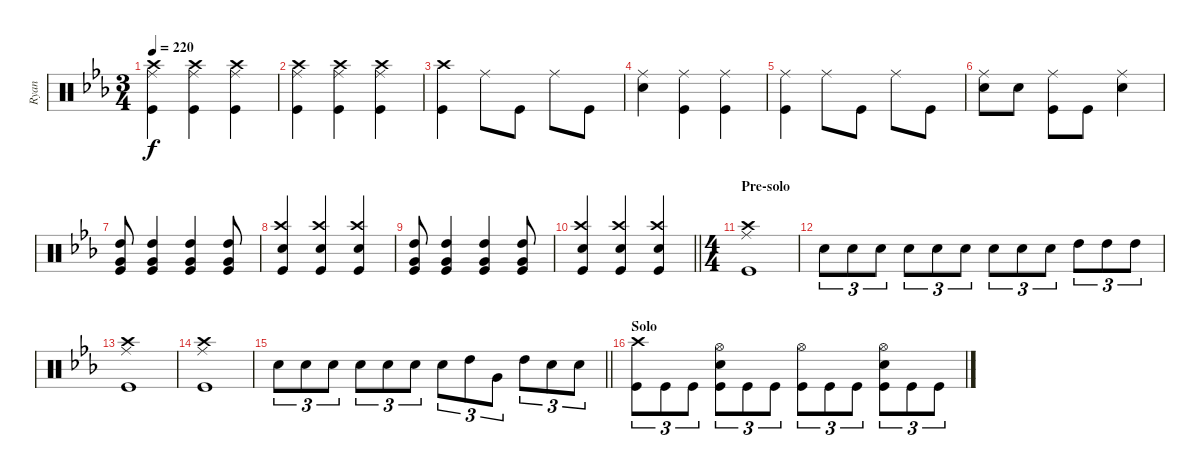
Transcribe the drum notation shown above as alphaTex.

\track ("Ryan" "Ryan") {instrument percussion}
\staff {score}
\articulation defaults
\ts (3 4)
\tempo 220
\clef neutral
\ks cminor
("Kick (hit)" "Crash high (hit)" "Ride (middle)").4{dy f} ("Crash high (hit)" "Kick (hit)" "Ride (middle)").4 ("Crash high (hit)" "Kick (hit)" "Ride (middle)").4 |
("Kick (hit)" "Crash high (hit)" "Ride (middle)").4 ("Crash high (hit)" "Kick (hit)" "Ride (middle)").4 ("Crash high (hit)" "Kick (hit)" "Ride (middle)").4 |
("Crash high (hit)" "Kick (hit)").4 "Ride (middle)".8 "Kick (hit)".8 "Ride (middle)".8 "Kick (hit)".8 |
("Ride (middle)" "Snare (hit) 2").4 ("Kick (hit)" "Ride (middle)").4 ("Kick (hit)" "Ride (middle)").4 |
("Kick (hit)" "Ride (middle)").4 "Ride (middle)".8 "Kick (hit)".8 "Ride (middle)".8 "Kick (hit)".8 |
("Snare (hit) 2" "Ride (middle)").8 "Snare (hit) 2".8 ("Kick (hit)" "Ride (middle)").8 "Kick (hit)".8 ("Snare (hit) 2" "Ride (middle)").4 |
("Kick (hit)" "Very Low Tom (hit)" "High Tom (hit)").8 ("High Tom (hit)" "Very Low Tom (hit)" "Kick (hit)").4 ("Very Low Tom (hit)" "Kick (hit)" "High Tom (hit)").4 ("Kick (hit)" "Very Low Tom (hit)" "High Tom (hit)").8 |
("Kick (hit)" "Snare (hit) 2" "Crash high (hit)").4 ("Kick (hit)" "Snare (hit) 2" "Crash high (hit)").4 ("Crash high (hit)" "Snare (hit) 2" "Kick (hit)").4 |
("Kick (hit)" "Very Low Tom (hit)" "High Tom (hit)").8 ("High Tom (hit)" "Very Low Tom (hit)" "Kick (hit)").4 ("Very Low Tom (hit)" "Kick (hit)" "High Tom (hit)").4 ("Kick (hit)" "Very Low Tom (hit)" "High Tom (hit)").8 |
\barLineRight lightlight
("Kick (hit)" "Snare (hit) 2" "Crash high (hit)").4 ("Kick (hit)" "Snare (hit) 2" "Crash high (hit)").4 ("Crash high (hit)" "Snare (hit) 2" "Kick (hit)").4 |
\ts (4 4)
\section ("" "Pre-solo")
("Kick (hit)" "Crash high (hit)" "Ride (middle)").1 |
"Snare (hit) 2".8{tu (3 2)} "Snare (hit) 2".8{tu (3 2)} "Snare (hit) 2".8{tu (3 2)} "Snare (hit) 2".8{tu (3 2)} "Snare (hit) 2".8{tu (3 2)} "Snare (hit) 2".8{tu (3 2)} "Snare (hit) 2".8{tu (3 2)} "Snare (hit) 2".8{tu (3 2)} "Snare (hit) 2".8{tu (3 2)} "High Tom (hit)".8{tu (3 2)} "High Tom (hit)".8{tu (3 2)} "High Tom (hit)".8{tu (3 2)} |
("Kick (hit)" "Crash high (hit)" "Ride (middle)").1 |
("Kick (hit)" "Crash high (hit)" "Ride (middle)").1 |
\barLineRight lightlight "Snare (hit) 2".8{tu (3 2)} "Snare (hit) 2".8{tu (3 2)} "Snare (hit) 2".8{tu (3 2)} "Snare (hit) 2".8{tu (3 2)} "Snare (hit) 2".8{tu (3 2)} "Snare (hit) 2".8{tu (3 2)} "Snare (hit) 2".8{tu (3 2)} "High Tom (hit)".8{tu (3 2)} "Very Low Tom (hit)".8{tu (3 2)} "High Tom (hit)".8{tu (3 2)} "Snare (hit) 2".8{tu (3 2)} "Snare (hit) 2".8{tu (3 2)}
|
\section ("" "Solo")
("Kick (hit)" "Crash high (hit)").8{tu (3 2)} "Kick (hit)".8{tu (3 2)} "Kick (hit)".8{tu (3 2)} ("Kick (hit)" "Snare (hit) 2" "Hi-Hat (open)").8{tu (3 2)} "Kick (hit)".8{tu (3 2)} "Kick (hit)".8{tu (3 2)} ("Kick (hit)" "Hi-Hat (open)").8{tu (3 2)} "Kick (hit)".8{tu (3 2)} "Kick (hit)".8{tu (3 2)} ("Kick (hit)" "Snare (hit) 2" "Hi-Hat (open)").8{tu (3 2)} "Kick (hit)".8{tu (3 2)} "Kick (hit)".8{tu (3 2)}
